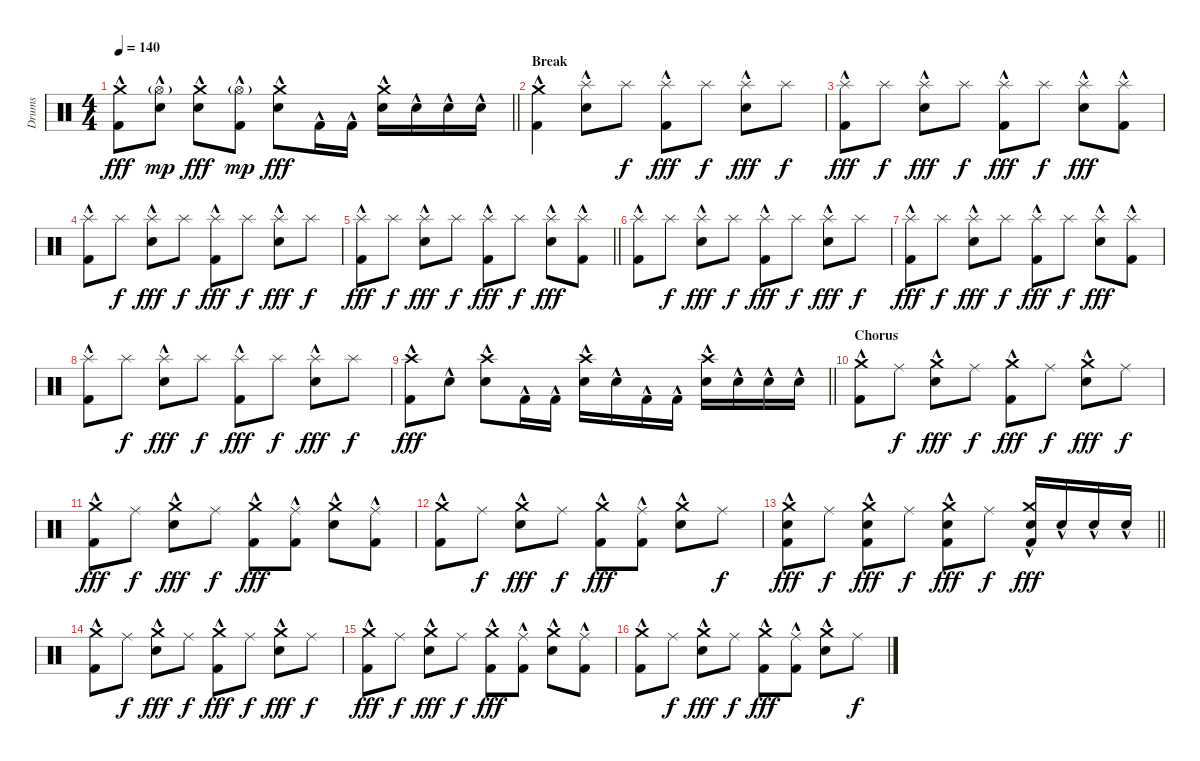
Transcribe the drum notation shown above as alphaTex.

\track ("Drums" "Drums") {instrument percussion}
\staff {score}
\articulation defaults
\ts (4 4)
\tempo 140
\clef neutral
\barLineRight lightlight
\ks c
("Kick (hit) 2"{hac} "Crash medium (hit)").8{dy fff} ("Snare (hit) 2"{hac} "Hi-Hat (open)"{g}).8{dy mp} ("Snare (hit) 2"{hac} "Crash medium (hit)").8{dy fff} ("Kick (hit) 2"{hac} "Hi-Hat (open)"{g}).8{dy mp} ("Snare (hit) 2"{hac} "Crash medium (hit)").8{dy fff} "Kick (hit) 2"{hac}.16 "Kick (hit) 2"{hac}.16 ("Snare (hit) 2"{hac} "Crash medium (hit)").16 "Snare (hit) 2"{hac}.16 "Snare (hit) 2"{hac}.16 "Snare (hit) 2"{hac}.16 |
\section ("" "Break")
("Kick (hit) 2"{hac} "Crash medium (hit)").4 ("Snare (hit) 2"{hac} "Splash (hit)").8 "Splash (hit)".8{dy f} ("Kick (hit) 2"{hac} "Splash (hit)").8{dy fff} "Splash (hit)".8{dy f} ("Snare (hit) 2"{hac} "Splash (hit)").8{dy fff} "Splash (hit)".8{dy f} |
("Kick (hit) 2"{hac} "Splash (hit)").8{dy fff} "Splash (hit)".8{dy f} ("Snare (hit) 2"{hac} "Splash (hit)").8{dy fff} "Splash (hit)".8{dy f} ("Kick (hit) 2"{hac} "Splash (hit)").8{dy fff} "Splash (hit)".8{dy f} ("Snare (hit) 2"{hac} "Splash (hit)").8{dy fff} ("Kick (hit) 2"{hac} "Splash (hit)").8 |
("Kick (hit) 2"{hac} "Splash (hit)").8 "Splash (hit)".8{dy f} ("Snare (hit) 2"{hac} "Splash (hit)").8{dy fff} "Splash (hit)".8{dy f} ("Kick (hit) 2"{hac} "Splash (hit)").8{dy fff} "Splash (hit)".8{dy f} ("Snare (hit) 2"{hac} "Splash (hit)").8{dy fff} "Splash (hit)".8{dy f} |
\barLineRight lightlight
("Kick (hit) 2"{hac} "Splash (hit)").8{dy fff} "Splash (hit)".8{dy f} ("Snare (hit) 2"{hac} "Splash (hit)").8{dy fff} "Splash (hit)".8{dy f} ("Kick (hit) 2"{hac} "Splash (hit)").8{dy fff} "Splash (hit)".8{dy f} ("Snare (hit) 2"{hac} "Splash (hit)").8{dy fff} ("Kick (hit) 2"{hac} "Splash (hit)").8 |
\section ("" "")
("Kick (hit) 2"{hac} "Splash (hit)").8 "Splash (hit)".8{dy f} ("Snare (hit) 2"{hac} "Splash (hit)").8{dy fff} "Splash (hit)".8{dy f} ("Kick (hit) 2"{hac} "Splash (hit)").8{dy fff} "Splash (hit)".8{dy f} ("Snare (hit) 2"{hac} "Splash (hit)").8{dy fff} "Splash (hit)".8{dy f} |
("Kick (hit) 2"{hac} "Splash (hit)").8{dy fff} "Splash (hit)".8{dy f} ("Snare (hit) 2"{hac} "Splash (hit)").8{dy fff} "Splash (hit)".8{dy f} ("Kick (hit) 2"{hac} "Splash (hit)").8{dy fff} "Splash (hit)".8{dy f} ("Snare (hit) 2"{hac} "Splash (hit)").8{dy fff} ("Kick (hit) 2"{hac} "Splash (hit)").8 |
("Kick (hit) 2"{hac} "Splash (hit)").8 "Splash (hit)".8{dy f} ("Snare (hit) 2"{hac} "Splash (hit)").8{dy fff} "Splash (hit)".8{dy f} ("Kick (hit) 2"{hac} "Splash (hit)").8{dy fff} "Splash (hit)".8{dy f} ("Snare (hit) 2"{hac} "Splash (hit)").8{dy fff} "Splash (hit)".8{dy f} |
\barLineRight lightlight
("Kick (hit) 2"{hac} "Crash high (hit)").8{dy fff} "Snare (hit) 2"{hac}.8 ("Snare (hit) 2"{hac} "Crash high (hit)").8 "Kick (hit) 2"{hac}.16 "Kick (hit) 2"{hac}.16 ("Snare (hit) 2"{hac} "Crash high (hit)").16 "Snare (hit) 2"{hac}.16 "Kick (hit) 2"{hac}.16 "Kick (hit) 2"{hac}.16 ("Snare (hit) 2"{hac} "Crash high (hit)").16 "Snare (hit) 2"{hac}.16 "Snare (hit) 2"{hac}.16 "Snare (hit) 2"{hac}.16 |
\section ("" "Chorus")
("Kick (hit) 2"{hac} "Crash medium (hit)").8 "Ride (middle)".8{dy f} ("Snare (hit) 2"{hac} "Crash medium (hit)").8{dy fff} "Ride (middle)".8{dy f} ("Kick (hit) 2"{hac} "Crash medium (hit)").8{dy fff} "Ride (middle)".8{dy f} ("Snare (hit) 2"{hac} "Crash medium (hit)").8{dy fff} "Ride (middle)".8{dy f} |
("Kick (hit) 2"{hac} "Crash medium (hit)").8{dy fff} "Ride (middle)".8{dy f} ("Snare (hit) 2"{hac} "Crash medium (hit)").8{dy fff} "Ride (middle)".8{dy f} ("Kick (hit) 2"{hac} "Crash medium (hit)").8{dy fff} ("Kick (hit) 2"{hac} "Ride (middle)").8 ("Snare (hit) 2"{hac} "Crash medium (hit)").8 ("Kick (hit) 2"{hac} "Ride (middle)").8 |
("Kick (hit) 2"{hac} "Crash medium (hit)").8 "Ride (middle)".8{dy f} ("Snare (hit) 2"{hac} "Crash medium (hit)").8{dy fff} "Ride (middle)".8{dy f} ("Kick (hit) 2"{hac} "Crash medium (hit)").8{dy fff} ("Kick (hit) 2"{hac} "Ride (middle)").8 ("Snare (hit) 2"{hac} "Crash medium (hit)").8 "Ride (middle)".8{dy f} |
\barLineRight lightlight
("Kick (hit) 2"{hac} "Snare (hit) 2"{hac} "Crash medium (hit)").8{dy fff} "Ride (middle)".8{dy f} ("Kick (hit) 2"{hac} "Snare (hit) 2"{hac} "Crash medium (hit)").8{dy fff} "Ride (middle)".8{dy f} ("Kick (hit) 2"{hac} "Snare (hit) 2"{hac} "Crash medium (hit)").8{dy fff} "Ride (middle)".8{dy f} ("Kick (hit) 2"{hac} "Snare (hit) 2"{hac} "Crash medium (hit)").16{dy fff} "Snare (hit) 2"{hac}.16 "Snare (hit) 2"{hac}.16 "Snare (hit) 2"{hac}.16 |
\section ("" "")
("Kick (hit) 2"{hac} "Crash medium (hit)").8 "Ride (middle)".8{dy f} ("Snare (hit) 2"{hac} "Crash medium (hit)").8{dy fff} "Ride (middle)".8{dy f} ("Kick (hit) 2"{hac} "Crash medium (hit)").8{dy fff} "Ride (middle)".8{dy f} ("Snare (hit) 2"{hac} "Crash medium (hit)").8{dy fff} "Ride (middle)".8{dy f} |
("Kick (hit) 2"{hac} "Crash medium (hit)").8{dy fff} "Ride (middle)".8{dy f} ("Snare (hit) 2"{hac} "Crash medium (hit)").8{dy fff} "Ride (middle)".8{dy f} ("Kick (hit) 2"{hac} "Crash medium (hit)").8{dy fff} ("Kick (hit) 2"{hac} "Ride (middle)").8 ("Snare (hit) 2"{hac} "Crash medium (hit)").8 ("Kick (hit) 2"{hac} "Ride (middle)").8 |
("Kick (hit) 2"{hac} "Crash medium (hit)").8 "Ride (middle)".8{dy f} ("Snare (hit) 2"{hac} "Crash medium (hit)").8{dy fff} "Ride (middle)".8{dy f} ("Kick (hit) 2"{hac} "Crash medium (hit)").8{dy fff} ("Kick (hit) 2"{hac} "Ride (middle)").8 ("Snare (hit) 2"{hac} "Crash medium (hit)").8 "Ride (middle)".8{dy f}
